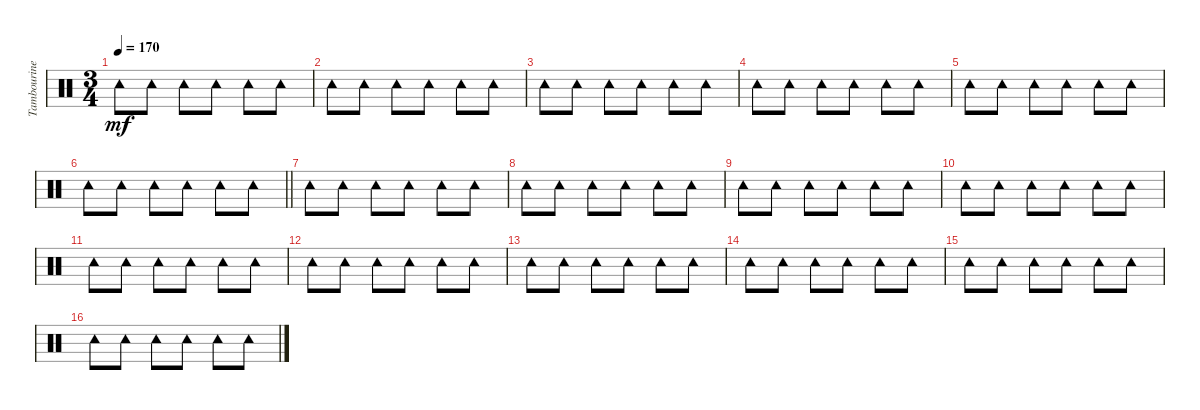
\track ("Tambourine" "Tambourine") {instrument percussion}
\staff {score}
\articulation defaults
\ts (3 4)
\tempo 170
\clef neutral
\ks c "Tambourine (hit)".8{dy mf} "Tambourine (hit)".8 "Tambourine (hit)".8 "Tambourine (hit)".8 "Tambourine (hit)".8 "Tambourine (hit)".8
|
"Tambourine (hit)".8 "Tambourine (hit)".8 "Tambourine (hit)".8 "Tambourine (hit)".8 "Tambourine (hit)".8 "Tambourine (hit)".8 |
"Tambourine (hit)".8 "Tambourine (hit)".8 "Tambourine (hit)".8 "Tambourine (hit)".8 "Tambourine (hit)".8 "Tambourine (hit)".8 |
"Tambourine (hit)".8 "Tambourine (hit)".8 "Tambourine (hit)".8 "Tambourine (hit)".8 "Tambourine (hit)".8 "Tambourine (hit)".8 |
"Tambourine (hit)".8 "Tambourine (hit)".8 "Tambourine (hit)".8 "Tambourine (hit)".8 "Tambourine (hit)".8 "Tambourine (hit)".8 |
\barLineRight lightlight "Tambourine (hit)".8 "Tambourine (hit)".8 "Tambourine (hit)".8 "Tambourine (hit)".8 "Tambourine (hit)".8 "Tambourine (hit)".8
|
"Tambourine (hit)".8 "Tambourine (hit)".8 "Tambourine (hit)".8 "Tambourine (hit)".8 "Tambourine (hit)".8 "Tambourine (hit)".8 |
"Tambourine (hit)".8 "Tambourine (hit)".8 "Tambourine (hit)".8 "Tambourine (hit)".8 "Tambourine (hit)".8 "Tambourine (hit)".8 |
"Tambourine (hit)".8 "Tambourine (hit)".8 "Tambourine (hit)".8 "Tambourine (hit)".8 "Tambourine (hit)".8 "Tambourine (hit)".8 |
"Tambourine (hit)".8 "Tambourine (hit)".8 "Tambourine (hit)".8 "Tambourine (hit)".8 "Tambourine (hit)".8 "Tambourine (hit)".8 |
"Tambourine (hit)".8 "Tambourine (hit)".8 "Tambourine (hit)".8 "Tambourine (hit)".8 "Tambourine (hit)".8 "Tambourine (hit)".8 |
"Tambourine (hit)".8 "Tambourine (hit)".8 "Tambourine (hit)".8 "Tambourine (hit)".8 "Tambourine (hit)".8 "Tambourine (hit)".8 |
"Tambourine (hit)".8 "Tambourine (hit)".8 "Tambourine (hit)".8 "Tambourine (hit)".8 "Tambourine (hit)".8 "Tambourine (hit)".8 |
"Tambourine (hit)".8 "Tambourine (hit)".8 "Tambourine (hit)".8 "Tambourine (hit)".8 "Tambourine (hit)".8 "Tambourine (hit)".8 |
"Tambourine (hit)".8 "Tambourine (hit)".8 "Tambourine (hit)".8 "Tambourine (hit)".8 "Tambourine (hit)".8 "Tambourine (hit)".8 |
"Tambourine (hit)".8 "Tambourine (hit)".8 "Tambourine (hit)".8 "Tambourine (hit)".8 "Tambourine (hit)".8 "Tambourine (hit)".8
